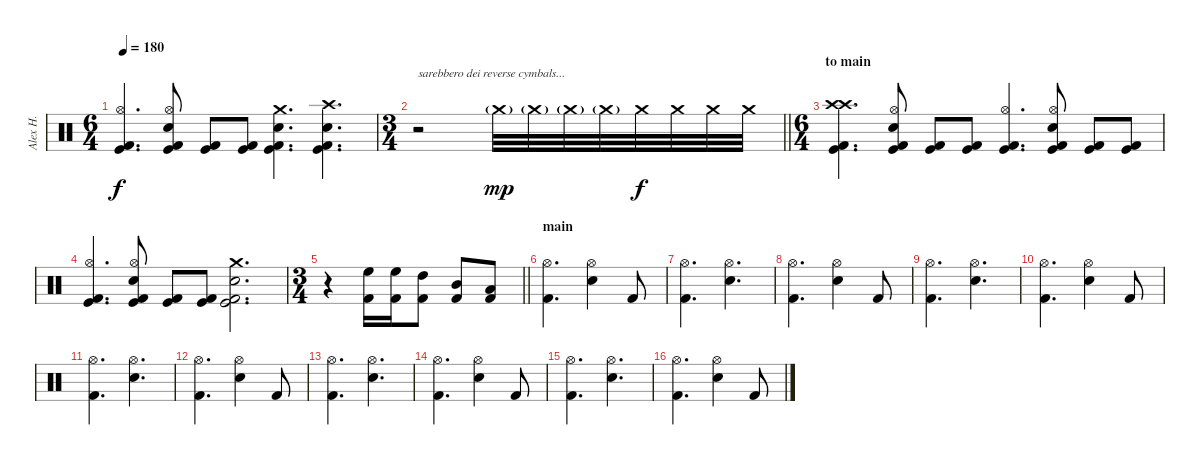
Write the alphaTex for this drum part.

\track ("Alex H." "Alex H.") {instrument percussion}
\staff {score}
\articulation defaults
\ts (6 4)
\tempo 180
\clef neutral
\ks c
("Kick (hit) 2" "Hi-Hat (open)" "Kick (hit)").4{d dy f} ("Kick (hit) 2" "Electric Snare (hit)" "Hi-Hat (open)" "Kick (hit)").8 ("Kick (hit) 2" "Kick (hit)").8 ("Kick (hit) 2" "Kick (hit)").8 ("Kick (hit) 2" "Snare (hit) 2" "Crash medium (hit)" "Kick (hit)").4{d} ("Kick (hit) 2" "Snare (hit) 2" "Crash high (hit)" "Kick (hit)").4{d} |
\ts (3 4)
\barLineRight lightlight
r.2{txt "sarebbero dei reverse cymbals..."} "Crash medium (hit)"{g}.32{dy mp} "Crash medium (hit)"{g}.32 "Crash medium (hit)"{g}.32 "Crash medium (hit)"{g}.32 "Crash medium (hit)".32{dy f} "Crash medium (hit)".32 "Crash medium (hit)".32 "Crash medium (hit)".32 |
\ts (6 4)
\section ("" "to main")
("Kick (hit) 2" "Crash high (hit)" "Crash high (hit)" "Kick (hit)").4{d} ("Kick (hit) 2" "Electric Snare (hit)" "Hi-Hat (open)" "Kick (hit)").8 ("Kick (hit) 2" "Kick (hit)").8 ("Kick (hit) 2" "Kick (hit)").8 ("Kick (hit) 2" "Hi-Hat (open)" "Kick (hit)").4{d} ("Kick (hit) 2" "Electric Snare (hit)" "Hi-Hat (open)" "Kick (hit)").8 ("Kick (hit) 2" "Kick (hit)").8 ("Kick (hit) 2" "Kick (hit)").8 |
("Kick (hit) 2" "Hi-Hat (open)" "Kick (hit)").4{d} ("Kick (hit) 2" "Electric Snare (hit)" "Hi-Hat (open)" "Kick (hit)").8 ("Kick (hit) 2" "Kick (hit)").8 ("Kick (hit) 2" "Kick (hit)").8 ("Kick (hit) 2" "Snare (hit) 2" "Crash medium (hit)" "Kick (hit)").2{d} |
\ts (3 4)
\barLineRight lightlight
r.4 ("Kick (hit) 2" "High Floor Tom (hit)").16 ("Kick (hit) 2" "High Floor Tom (hit)").16 ("Kick (hit) 2" "High Tom (hit)").8 ("Kick (hit) 2" "Mid Tom (hit)").8 ("Kick (hit) 2" "Low Tom (hit)").8 |
\section ("" "main")
("Kick (hit) 2" "Hi-Hat (open)").4{d} ("Electric Snare (hit)" "Hi-Hat (open)").4 "Kick (hit) 2".8 |
("Kick (hit) 2" "Hi-Hat (open)").4{d} ("Electric Snare (hit)" "Hi-Hat (open)").4{d} |
("Kick (hit) 2" "Hi-Hat (open)").4{d} ("Electric Snare (hit)" "Hi-Hat (open)").4 "Kick (hit) 2".8 |
("Kick (hit) 2" "Hi-Hat (open)").4{d} ("Electric Snare (hit)" "Hi-Hat (open)").4{d} |
("Kick (hit) 2" "Hi-Hat (open)").4{d} ("Electric Snare (hit)" "Hi-Hat (open)").4 "Kick (hit) 2".8 |
("Kick (hit) 2" "Hi-Hat (open)").4{d} ("Electric Snare (hit)" "Hi-Hat (open)").4{d} |
("Kick (hit) 2" "Hi-Hat (open)").4{d} ("Electric Snare (hit)" "Hi-Hat (open)").4 "Kick (hit) 2".8 |
("Kick (hit) 2" "Hi-Hat (open)").4{d} ("Electric Snare (hit)" "Hi-Hat (open)").4{d} |
("Kick (hit) 2" "Hi-Hat (open)").4{d} ("Electric Snare (hit)" "Hi-Hat (open)").4 "Kick (hit) 2".8 |
("Kick (hit) 2" "Hi-Hat (open)").4{d} ("Electric Snare (hit)" "Hi-Hat (open)").4{d} |
("Kick (hit) 2" "Hi-Hat (open)").4{d} ("Electric Snare (hit)" "Hi-Hat (open)").4 "Kick (hit) 2".8
